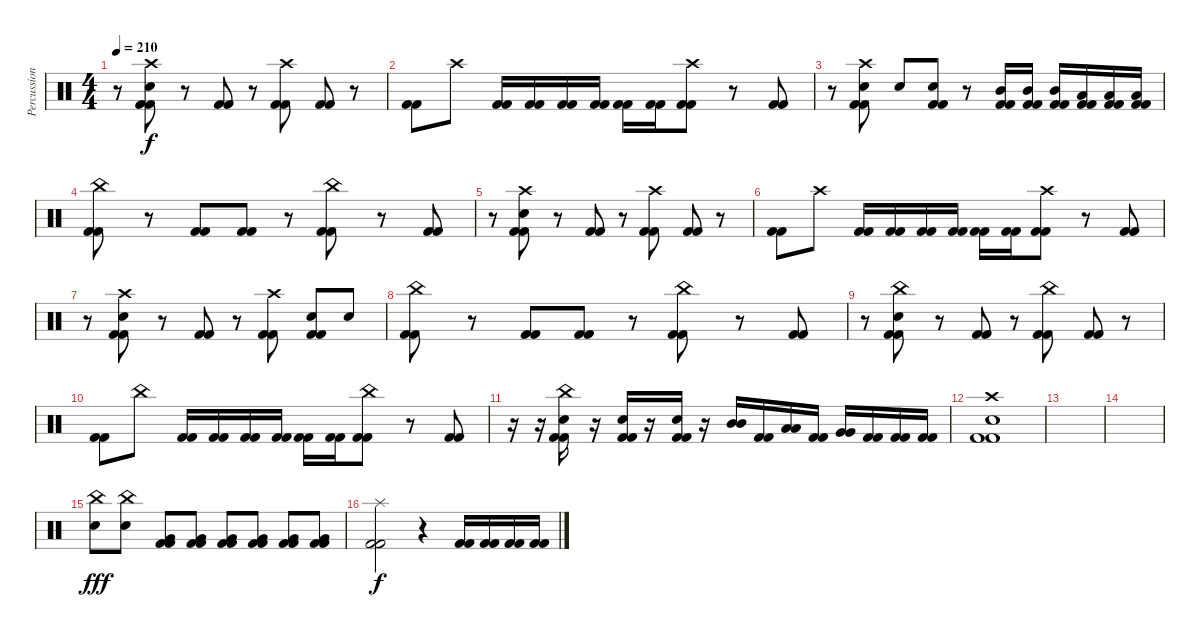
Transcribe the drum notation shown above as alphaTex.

\track ("Percussion" "Percussion") {instrument percussion}
\staff {score}
\articulation defaults
\ts (4 4)
\tempo 210
\clef neutral
\ks c
r.8{dy f} ("Crash high (hit)" "Electric Snare (hit)" "Kick (hit) 2" "Kick (hit) 2").8 r.8 ("Kick (hit) 2" "Kick (hit) 2").8 r.8 ("Crash high (hit)" "Kick (hit) 2" "Kick (hit) 2").8 ("Kick (hit) 2" "Kick (hit) 2").8 r.8 |
("Kick (hit) 2" "Kick (hit) 2").8 "Crash high (hit)".8 ("Kick (hit) 2" "Kick (hit) 2").16 ("Kick (hit) 2" "Kick (hit) 2").16 ("Kick (hit) 2" "Kick (hit) 2").16 ("Kick (hit) 2" "Kick (hit) 2").16 ("Kick (hit) 2" "Kick (hit) 2").16 ("Kick (hit) 2" "Kick (hit) 2").16 ("Crash high (hit)" "Kick (hit) 2" "Kick (hit) 2").8 r.8 ("Kick (hit) 2" "Kick (hit) 2").8 |
r.8 ("Crash high (hit)" "Electric Snare (hit)" "Kick (hit) 2" "Kick (hit) 2").8 "Electric Snare (hit)".8 ("Electric Snare (hit)" "Kick (hit) 2" "Kick (hit) 2").8 r.8 ("Mid Tom (hit)" "Kick (hit) 2" "Kick (hit) 2").16 ("Mid Tom (hit)" "Kick (hit) 2" "Kick (hit) 2").16 ("Mid Tom (hit)" "Kick (hit) 2" "Kick (hit) 2").16 ("Low Tom (hit)" "Kick (hit) 2" "Kick (hit) 2").16 ("Low Tom (hit)" "Kick (hit) 2" "Kick (hit) 2").16 ("Low Tom (hit)" "Kick (hit) 2" "Kick (hit) 2").16 |
("China (hit)" "Kick (hit) 2" "Kick (hit) 2").8 r.8 ("Kick (hit) 2" "Kick (hit) 2").8 ("Kick (hit) 2" "Kick (hit) 2").8 r.8 ("China (hit)" "Kick (hit) 2" "Kick (hit) 2").8 r.8 ("Kick (hit) 2" "Kick (hit) 2").8 |
r.8 ("Crash high (hit)" "Electric Snare (hit)" "Kick (hit) 2" "Kick (hit) 2").8 r.8 ("Kick (hit) 2" "Kick (hit) 2").8 r.8 ("Crash high (hit)" "Kick (hit) 2" "Kick (hit) 2").8 ("Kick (hit) 2" "Kick (hit) 2").8 r.8 |
("Kick (hit) 2" "Kick (hit) 2").8 "Crash high (hit)".8 ("Kick (hit) 2" "Kick (hit) 2").16 ("Kick (hit) 2" "Kick (hit) 2").16 ("Kick (hit) 2" "Kick (hit) 2").16 ("Kick (hit) 2" "Kick (hit) 2").16 ("Kick (hit) 2" "Kick (hit) 2").16 ("Kick (hit) 2" "Kick (hit) 2").16 ("Crash high (hit)" "Kick (hit) 2" "Kick (hit) 2").8 r.8 ("Kick (hit) 2" "Kick (hit) 2").8 |
r.8 ("Crash high (hit)" "Electric Snare (hit)" "Kick (hit) 2" "Kick (hit) 2").8 r.8 ("Kick (hit) 2" "Kick (hit) 2").8 r.8 ("Crash high (hit)" "Kick (hit) 2" "Kick (hit) 2").8 ("Electric Snare (hit)" "Kick (hit) 2" "Kick (hit) 2").8 "Electric Snare (hit)".8 |
("China (hit)" "Kick (hit) 2" "Kick (hit) 2").8 r.8 ("Kick (hit) 2" "Kick (hit) 2").8 ("Kick (hit) 2" "Kick (hit) 2").8 r.8 ("China (hit)" "Kick (hit) 2" "Kick (hit) 2").8 r.8 ("Kick (hit) 2" "Kick (hit) 2").8 |
r.8 ("China (hit)" "Electric Snare (hit)" "Kick (hit) 2" "Kick (hit) 2").8 r.8 ("Kick (hit) 2" "Kick (hit) 2").8 r.8 ("China (hit)" "Kick (hit) 2" "Kick (hit) 2").8 ("Kick (hit) 2" "Kick (hit) 2").8 r.8 |
("Kick (hit) 2" "Kick (hit) 2").8 "China (hit)".8 ("Kick (hit) 2" "Kick (hit) 2").16 ("Kick (hit) 2" "Kick (hit) 2").16 ("Kick (hit) 2" "Kick (hit) 2").16 ("Kick (hit) 2" "Kick (hit) 2").16 ("Kick (hit) 2" "Kick (hit) 2").16 ("Kick (hit) 2" "Kick (hit) 2").16 ("China (hit)" "Kick (hit) 2" "Kick (hit) 2").8 r.8 ("Kick (hit) 2" "Kick (hit) 2").8 |
r.16 r.16 ("China (hit)" "Electric Snare (hit)" "Kick (hit) 2" "Kick (hit) 2").16 r.16 ("Electric Snare (hit)" "Kick (hit) 2" "Kick (hit) 2").16 r.16 ("Electric Snare (hit)" "Kick (hit) 2" "Kick (hit) 2").16 r.16 ("Mid Tom (hit)" "Mid Tom (hit)").16 ("Kick (hit) 2" "Kick (hit) 2").16 ("Low Tom (hit)" "Low Tom (hit)").16 ("Kick (hit) 2" "Kick (hit) 2").16 ("Very Low Tom (hit)" "Very Low Tom (hit)").16 ("Kick (hit) 2" "Kick (hit) 2").16 ("Kick (hit) 2" "Kick (hit) 2").16 ("Kick (hit) 2" "Kick (hit) 2").16 |
("Crash high (hit)" "Electric Snare (hit)" "Kick (hit) 2" "Kick (hit) 2").1 |
|
|
("China (hit)" "Electric Snare (hit)").8{dy fff} ("China (hit)" "Electric Snare (hit)").8 ("Very Low Tom (hit)" "Kick (hit) 2" "Kick (hit) 2").8 ("Very Low Tom (hit)" "Kick (hit) 2" "Kick (hit) 2").8 ("Very Low Tom (hit)" "Kick (hit) 2" "Kick (hit) 2").8 ("Very Low Tom (hit)" "Kick (hit) 2" "Kick (hit) 2").8 ("Very Low Tom (hit)" "Kick (hit) 2" "Kick (hit) 2").8 ("Very Low Tom (hit)" "Kick (hit) 2" "Kick (hit) 2").8 |
("Splash (hit)" "Kick (hit) 2" "Kick (hit) 2").2{dy f} r.4 ("Kick (hit) 2" "Kick (hit) 2").16 ("Kick (hit) 2" "Kick (hit) 2").16 ("Kick (hit) 2" "Kick (hit) 2").16 ("Kick (hit) 2" "Kick (hit) 2").16
